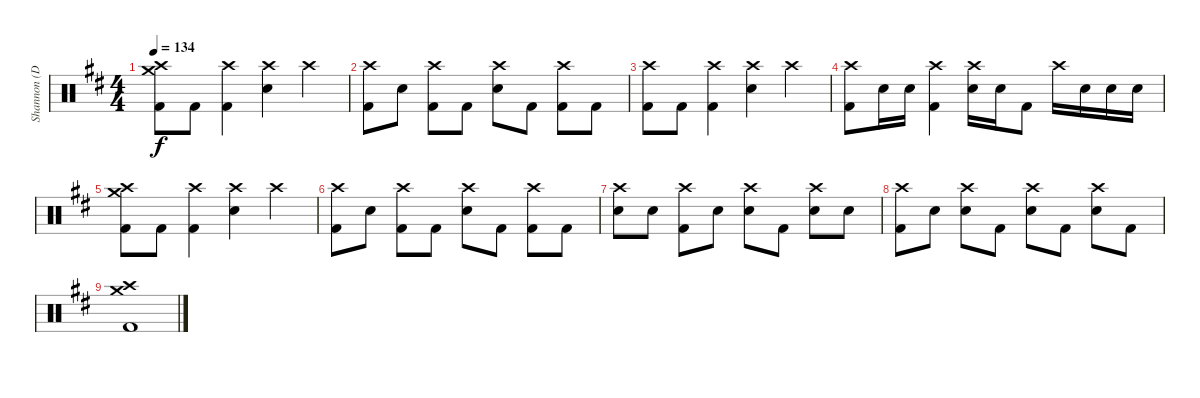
\track ("Shannon (Drums)" "Shannon (D") {instrument percussion}
\staff {score}
\articulation defaults
\ts (4 4)
\tempo 134
\clef neutral
\ks d
("Crash high (hit)" "Crash medium (hit)" "Kick (hit) 2").8{dy f} "Kick (hit) 2".8 ("Crash high (hit)" "Kick (hit) 2").4 ("Crash high (hit)" "Electric Snare (hit)").4 "Crash high (hit)".4 |
("Crash high (hit)" "Kick (hit) 2").8 "Electric Snare (hit)".8 ("Crash high (hit)" "Kick (hit) 2").8 "Kick (hit) 2".8 ("Crash high (hit)" "Electric Snare (hit)").8 "Kick (hit) 2".8 ("Crash high (hit)" "Kick (hit) 2").8 "Kick (hit) 2".8 |
("Crash high (hit)" "Kick (hit) 2").8 "Kick (hit) 2".8 ("Crash high (hit)" "Kick (hit) 2").4 ("Crash high (hit)" "Electric Snare (hit)").4 "Crash high (hit)".4 |
("Crash high (hit)" "Kick (hit) 2").8 "Electric Snare (hit)".16 "Electric Snare (hit)".16 ("Crash high (hit)" "Kick (hit) 2").4 ("Crash high (hit)" "Electric Snare (hit)").16 "Electric Snare (hit)".16 "Kick (hit) 2".8 "Crash high (hit)".16 "Electric Snare (hit)".16 "Electric Snare (hit)".16 "Electric Snare (hit)".16 |
("Crash high (hit)" "Crash medium (hit)" "Kick (hit) 2").8 "Kick (hit) 2".8 ("Crash high (hit)" "Kick (hit) 2").4 ("Crash high (hit)" "Electric Snare (hit)").4 "Crash high (hit)".4 |
("Crash high (hit)" "Kick (hit) 2").8 "Electric Snare (hit)".8 ("Crash high (hit)" "Kick (hit) 2").8 "Kick (hit) 2".8 ("Crash high (hit)" "Electric Snare (hit)").8 "Kick (hit) 2".8 ("Crash high (hit)" "Kick (hit) 2").8 "Kick (hit) 2".8 |
("Crash high (hit)" "Electric Snare (hit)").8 "Electric Snare (hit)".8 ("Crash high (hit)" "Kick (hit) 2").8 "Electric Snare (hit)".8 ("Crash high (hit)" "Electric Snare (hit)").8 "Kick (hit) 2".8 ("Crash high (hit)" "Electric Snare (hit)").8 "Electric Snare (hit)".8 |
("Crash high (hit)" "Kick (hit) 2").8 "Electric Snare (hit)".8 ("Crash high (hit)" "Electric Snare (hit)").8 "Kick (hit) 2".8 ("Crash high (hit)" "Electric Snare (hit)").8 "Kick (hit) 2".8 ("Crash high (hit)" "Electric Snare (hit)").8 "Kick (hit) 2".8 |
("Crash high (hit)" "Crash medium (hit)" "Kick (hit) 2").1
